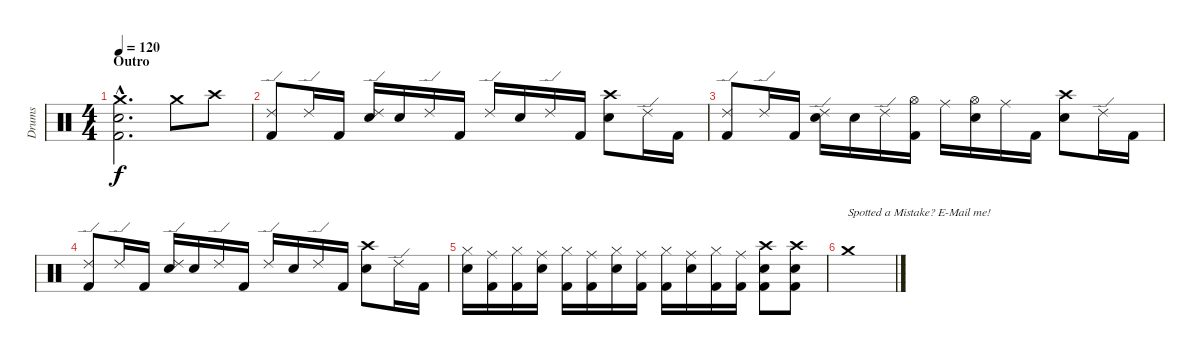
\track ("Drums" "Drums") {instrument percussion}
\staff {score}
\articulation defaults
\ts (4 4)
\section ("" "Outro")
\tempo 120
\clef neutral
\ks c
("Crash medium (hit)"{hac} "Electric Snare (hit)"{hac} "Kick (hit) 2"{hac}).2{d dy f} "Crash medium (hit)".8 "Crash high (hit)".8 |
("Ride (edge) 2" "Kick (hit) 2").8 "Ride (edge) 2".16 "Kick (hit) 2".16 ("Ride (edge) 2" "Electric Snare (hit)").16 "Electric Snare (hit)".16 "Ride (edge) 2".16 "Kick (hit) 2".16 "Ride (edge) 2".16 "Electric Snare (hit)".16 "Ride (edge) 2".16 "Kick (hit) 2".16 ("Crash high (hit)" "Electric Snare (hit)").8 "Ride (edge) 2".16 "Kick (hit) 2".16 |
("Ride (edge) 2" "Kick (hit) 2").8 "Ride (edge) 2".16 "Kick (hit) 2".16 ("Ride (edge) 2" "Electric Snare (hit)").16 "Electric Snare (hit)".16 "Ride (edge) 2".16 ("Hi-Hat (open)" "Kick (hit) 2").16 "Ride (middle)".16 ("Hi-Hat (open)" "Electric Snare (hit)").16 "Ride (middle)".16 "Kick (hit) 2".16 ("Crash high (hit)" "Electric Snare (hit)").8 "Ride (edge) 2".16 "Kick (hit) 2".16 |
("Ride (edge) 2" "Kick (hit) 2").8 "Ride (edge) 2".16 "Kick (hit) 2".16 ("Ride (edge) 2" "Electric Snare (hit)").16 "Electric Snare (hit)".16 "Ride (edge) 2".16 "Kick (hit) 2".16 "Ride (edge) 2".16 "Electric Snare (hit)".16 "Ride (edge) 2".16 "Kick (hit) 2".16 ("Crash high (hit)" "Electric Snare (hit)").8 "Ride (edge) 2".16 "Kick (hit) 2".16 |
("Hi-Hat (closed)" "Electric Snare (hit)").16 ("Ride (middle)" "Kick (hit) 2").16 ("Hi-Hat (closed)" "Kick (hit) 2").16 ("Ride (middle)" "Electric Snare (hit)").16 ("Hi-Hat (closed)" "Kick (hit) 2").16 ("Ride (middle)" "Kick (hit) 2").16 ("Hi-Hat (closed)" "Electric Snare (hit)").16 ("Ride (middle)" "Kick (hit) 2").16 ("Hi-Hat (closed)" "Kick (hit) 2").16 ("Ride (middle)" "Electric Snare (hit)").16 ("Hi-Hat (closed)" "Kick (hit) 2").16 ("Ride (middle)" "Kick (hit) 2").16 ("Crash high (hit)" "Electric Snare (hit)" "Kick (hit) 2").8 ("Crash high (hit)" "Electric Snare (hit)" "Kick (hit) 2").8 |
"Crash medium (hit)".1{txt "Spotted a Mistake? E-Mail me!"}
